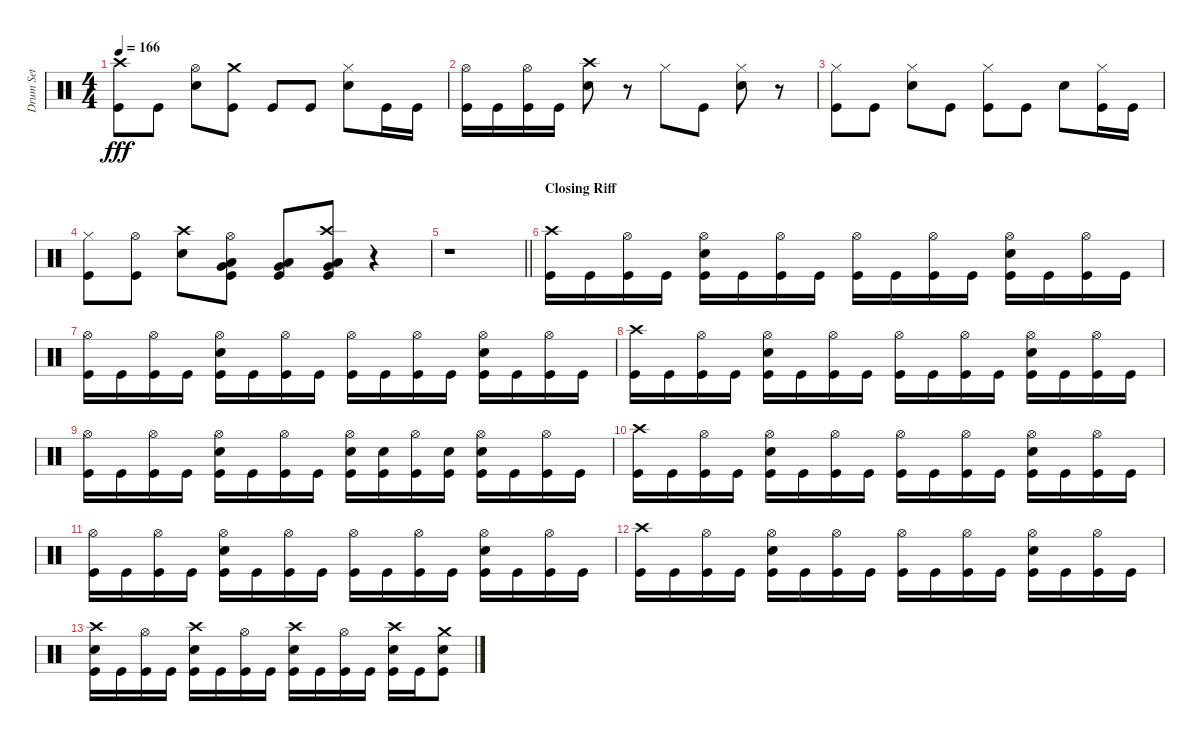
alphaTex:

\track ("Drum Set" "Drum Set") {instrument percussion}
\staff {score}
\articulation defaults
\ts (4 4)
\tempo 166
\clef neutral
\ks c
("Kick (hit)" "Crash high (hit)").8{dy fff} "Kick (hit)".8 ("Electric Snare (hit)" "Hi-Hat (open)").8 ("Kick (hit)" "Crash medium (hit)").8 "Kick (hit)".8 "Kick (hit)".8 ("Electric Snare (hit)" "Hi-Hat (closed)").8 "Kick (hit)".16 "Kick (hit)".16 |
("Kick (hit)" "Hi-Hat (open)").16 "Kick (hit)".16 ("Kick (hit)" "Hi-Hat (open)").16 "Kick (hit)".16 ("Electric Snare (hit)" "Crash high (hit)").8 r.8 "Hi-Hat (closed)".8 "Kick (hit)".8 ("Electric Snare (hit)" "Hi-Hat (closed)").8 r.8 |
("Kick (hit)" "Hi-Hat (closed)").8 "Kick (hit)".8 ("Electric Snare (hit)" "Hi-Hat (closed)").8 "Kick (hit)".8 ("Kick (hit)" "Hi-Hat (closed)").8 "Kick (hit)".8 "Electric Snare (hit)".8 ("Kick (hit)" "Hi-Hat (closed)").16 "Kick (hit)".16 |
("Kick (hit)" "Hi-Hat (closed)").8 ("Kick (hit)" "Hi-Hat (open)").8 ("Electric Snare (hit)" "Crash high (hit)").8 ("Kick (hit)" "Low Floor Tom (hit)" "Very Low Tom (hit)" "Hi-Hat (open)").8 ("Kick (hit)" "Low Floor Tom (hit)" "Very Low Tom (hit)").8 ("Kick (hit)" "Low Floor Tom (hit)" "Very Low Tom (hit)" "Crash high (hit)").8 r.4 |
\barLineRight lightlight
r.1 |
\section ("" "Closing Riff")
("Kick (hit)" "Crash high (hit)").16 "Kick (hit)".16 ("Kick (hit)" "Hi-Hat (open)").16 "Kick (hit)".16 ("Electric Snare (hit)" "Kick (hit)" "Hi-Hat (open)").16 "Kick (hit)".16 ("Kick (hit)" "Hi-Hat (open)").16 "Kick (hit)".16 ("Kick (hit)" "Hi-Hat (open)").16 "Kick (hit)".16 ("Kick (hit)" "Hi-Hat (open)").16 "Kick (hit)".16 ("Electric Snare (hit)" "Kick (hit)" "Hi-Hat (open)").16 "Kick (hit)".16 ("Kick (hit)" "Hi-Hat (open)").16 "Kick (hit)".16 |
("Kick (hit)" "Hi-Hat (open)").16 "Kick (hit)".16 ("Kick (hit)" "Hi-Hat (open)").16 "Kick (hit)".16 ("Electric Snare (hit)" "Kick (hit)" "Hi-Hat (open)").16 "Kick (hit)".16 ("Kick (hit)" "Hi-Hat (open)").16 "Kick (hit)".16 ("Kick (hit)" "Hi-Hat (open)").16 "Kick (hit)".16 ("Kick (hit)" "Hi-Hat (open)").16 "Kick (hit)".16 ("Electric Snare (hit)" "Kick (hit)" "Hi-Hat (open)").16 "Kick (hit)".16 ("Kick (hit)" "Hi-Hat (open)").16 "Kick (hit)".16 |
("Kick (hit)" "Crash high (hit)").16 "Kick (hit)".16 ("Kick (hit)" "Hi-Hat (open)").16 "Kick (hit)".16 ("Electric Snare (hit)" "Kick (hit)" "Hi-Hat (open)").16 "Kick (hit)".16 ("Kick (hit)" "Hi-Hat (open)").16 "Kick (hit)".16 ("Kick (hit)" "Hi-Hat (open)").16 "Kick (hit)".16 ("Kick (hit)" "Hi-Hat (open)").16 "Kick (hit)".16 ("Electric Snare (hit)" "Kick (hit)" "Hi-Hat (open)").16 "Kick (hit)".16 ("Kick (hit)" "Hi-Hat (open)").16 "Kick (hit)".16 |
("Kick (hit)" "Hi-Hat (open)").16 "Kick (hit)".16 ("Kick (hit)" "Hi-Hat (open)").16 "Kick (hit)".16 ("Electric Snare (hit)" "Kick (hit)" "Hi-Hat (open)").16 "Kick (hit)".16 ("Kick (hit)" "Hi-Hat (open)").16 "Kick (hit)".16 ("Electric Snare (hit)" "Kick (hit)" "Hi-Hat (open)").16 ("Electric Snare (hit)" "Kick (hit)").16 ("Kick (hit)" "Hi-Hat (open)").16 ("Electric Snare (hit)" "Kick (hit)").16 ("Electric Snare (hit)" "Kick (hit)" "Hi-Hat (open)").16 "Kick (hit)".16 ("Kick (hit)" "Hi-Hat (open)").16 "Kick (hit)".16 |
("Kick (hit)" "Crash high (hit)").16 "Kick (hit)".16 ("Kick (hit)" "Hi-Hat (open)").16 "Kick (hit)".16 ("Electric Snare (hit)" "Kick (hit)" "Hi-Hat (open)").16 "Kick (hit)".16 ("Kick (hit)" "Hi-Hat (open)").16 "Kick (hit)".16 ("Kick (hit)" "Hi-Hat (open)").16 "Kick (hit)".16 ("Kick (hit)" "Hi-Hat (open)").16 "Kick (hit)".16 ("Electric Snare (hit)" "Kick (hit)" "Hi-Hat (open)").16 "Kick (hit)".16 ("Kick (hit)" "Hi-Hat (open)").16 "Kick (hit)".16 |
("Kick (hit)" "Hi-Hat (open)").16 "Kick (hit)".16 ("Kick (hit)" "Hi-Hat (open)").16 "Kick (hit)".16 ("Electric Snare (hit)" "Kick (hit)" "Hi-Hat (open)").16 "Kick (hit)".16 ("Kick (hit)" "Hi-Hat (open)").16 "Kick (hit)".16 ("Kick (hit)" "Hi-Hat (open)").16 "Kick (hit)".16 ("Kick (hit)" "Hi-Hat (open)").16 "Kick (hit)".16 ("Electric Snare (hit)" "Kick (hit)" "Hi-Hat (open)").16 "Kick (hit)".16 ("Kick (hit)" "Hi-Hat (open)").16 "Kick (hit)".16 |
("Kick (hit)" "Crash high (hit)").16 "Kick (hit)".16 ("Kick (hit)" "Hi-Hat (open)").16 "Kick (hit)".16 ("Electric Snare (hit)" "Kick (hit)" "Hi-Hat (open)").16 "Kick (hit)".16 ("Kick (hit)" "Hi-Hat (open)").16 "Kick (hit)".16 ("Kick (hit)" "Hi-Hat (open)").16 "Kick (hit)".16 ("Kick (hit)" "Hi-Hat (open)").16 "Kick (hit)".16 ("Electric Snare (hit)" "Kick (hit)" "Hi-Hat (open)").16 "Kick (hit)".16 ("Kick (hit)" "Hi-Hat (open)").16 "Kick (hit)".16 |
("Electric Snare (hit)" "Kick (hit)" "Crash high (hit)").16 "Kick (hit)".16 ("Kick (hit)" "Hi-Hat (open)").16 "Kick (hit)".16 ("Electric Snare (hit)" "Kick (hit)" "Crash high (hit)").16 "Kick (hit)".16 ("Kick (hit)" "Hi-Hat (open)").16 "Kick (hit)".16 ("Electric Snare (hit)" "Kick (hit)" "Crash high (hit)").16 "Kick (hit)".16 ("Kick (hit)" "Hi-Hat (open)").16 "Kick (hit)".16 ("Electric Snare (hit)" "Kick (hit)" "Crash high (hit)").16 "Kick (hit)".16 ("Electric Snare (hit)" "Kick (hit)" "Crash medium (hit)").8
